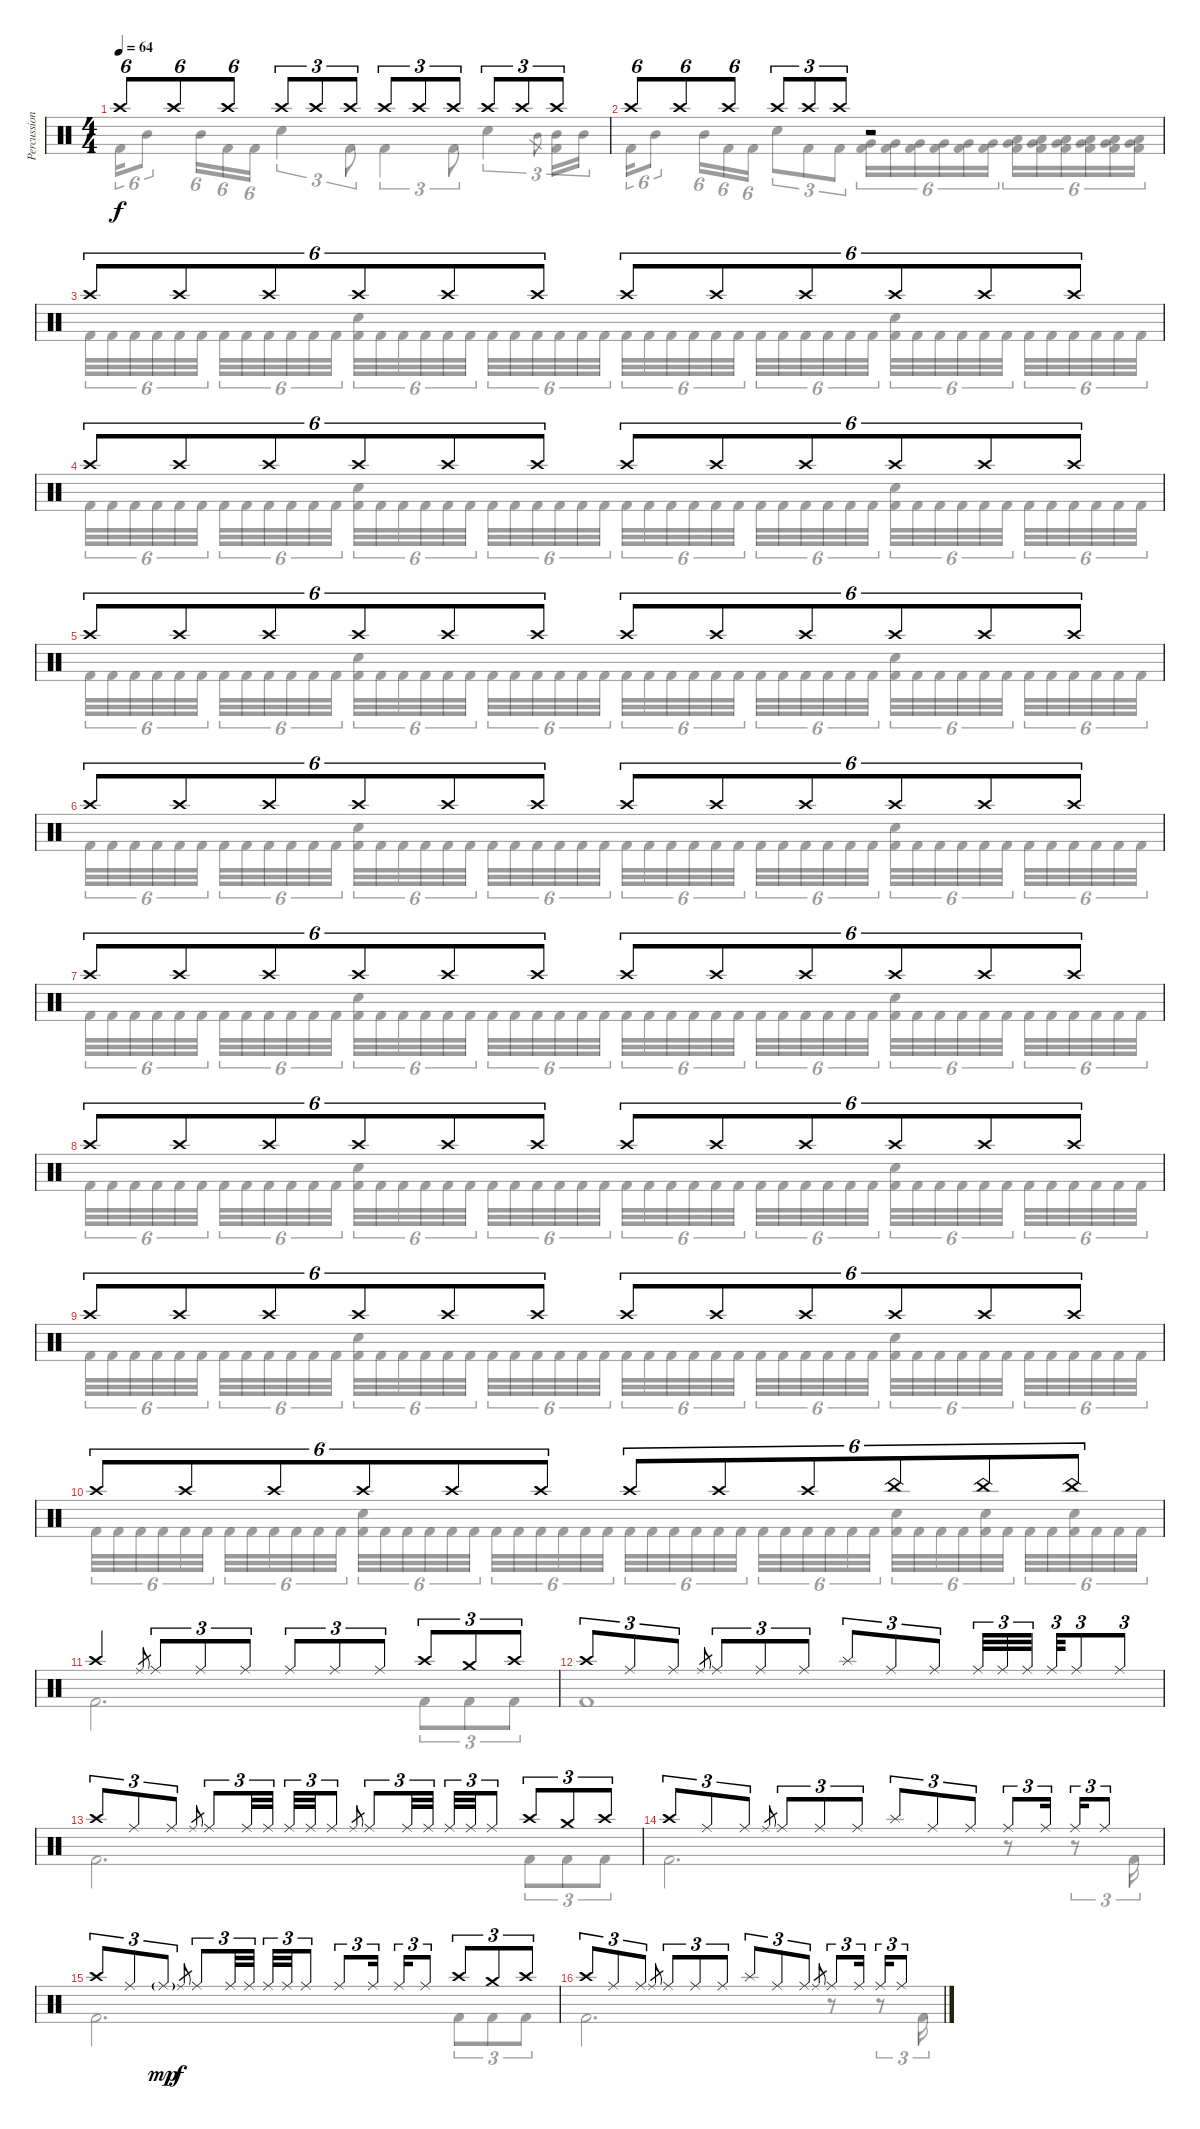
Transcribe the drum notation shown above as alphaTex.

\track ("Percussion" "Percussion") {instrument percussion}
\staff {score}
\articulation defaults
\voice
\ts (4 4)
\tempo 64
\clef neutral
\ks c "Crash high (hit)".8{tu (6 4) dy f} "Crash high (hit)".8{tu (6 4)} "Crash high (hit)".8{tu (6 4)} "Crash high (hit)".8{tu (3 2)} "Crash high (hit)".8{tu (3 2)} "Crash high (hit)".8{tu (3 2)} "Crash high (hit)".8{tu (3 2)} "Crash high (hit)".8{tu (3 2)} "Crash high (hit)".8{tu (3 2)} "Crash high (hit)".8{tu (3 2)} "Crash high (hit)".8{tu (3 2)} "Crash high (hit)".8{tu (3 2)}
|
"Crash high (hit)".8{tu (6 4)} "Crash high (hit)".8{tu (6 4)} "Crash high (hit)".8{tu (6 4)} "Crash high (hit)".8{tu (3 2)} "Crash high (hit)".8{tu (3 2)} "Crash high (hit)".8{tu (3 2)} r.2 |
"Crash high (hit)".8{tu (6 4)} "Crash high (hit)".8{tu (6 4)} "Crash high (hit)".8{tu (6 4)} "Crash high (hit)".8{tu (6 4)} "Crash high (hit)".8{tu (6 4)} "Crash high (hit)".8{tu (6 4)} "Crash high (hit)".8{tu (6 4)} "Crash high (hit)".8{tu (6 4)} "Crash high (hit)".8{tu (6 4)} "Crash high (hit)".8{tu (6 4)} "Crash high (hit)".8{tu (6 4)} "Crash high (hit)".8{tu (6 4)} |
"Crash high (hit)".8{tu (6 4)} "Crash high (hit)".8{tu (6 4)} "Crash high (hit)".8{tu (6 4)} "Crash high (hit)".8{tu (6 4)} "Crash high (hit)".8{tu (6 4)} "Crash high (hit)".8{tu (6 4)} "Crash high (hit)".8{tu (6 4)} "Crash high (hit)".8{tu (6 4)} "Crash high (hit)".8{tu (6 4)} "Crash high (hit)".8{tu (6 4)} "Crash high (hit)".8{tu (6 4)} "Crash high (hit)".8{tu (6 4)} |
"Crash high (hit)".8{tu (6 4)} "Crash high (hit)".8{tu (6 4)} "Crash high (hit)".8{tu (6 4)} "Crash high (hit)".8{tu (6 4)} "Crash high (hit)".8{tu (6 4)} "Crash high (hit)".8{tu (6 4)} "Crash high (hit)".8{tu (6 4)} "Crash high (hit)".8{tu (6 4)} "Crash high (hit)".8{tu (6 4)} "Crash high (hit)".8{tu (6 4)} "Crash high (hit)".8{tu (6 4)} "Crash high (hit)".8{tu (6 4)} |
"Crash high (hit)".8{tu (6 4)} "Crash high (hit)".8{tu (6 4)} "Crash high (hit)".8{tu (6 4)} "Crash high (hit)".8{tu (6 4)} "Crash high (hit)".8{tu (6 4)} "Crash high (hit)".8{tu (6 4)} "Crash high (hit)".8{tu (6 4)} "Crash high (hit)".8{tu (6 4)} "Crash high (hit)".8{tu (6 4)} "Crash high (hit)".8{tu (6 4)} "Crash high (hit)".8{tu (6 4)} "Crash high (hit)".8{tu (6 4)} |
"Crash high (hit)".8{tu (6 4)} "Crash high (hit)".8{tu (6 4)} "Crash high (hit)".8{tu (6 4)} "Crash high (hit)".8{tu (6 4)} "Crash high (hit)".8{tu (6 4)} "Crash high (hit)".8{tu (6 4)} "Crash high (hit)".8{tu (6 4)} "Crash high (hit)".8{tu (6 4)} "Crash high (hit)".8{tu (6 4)} "Crash high (hit)".8{tu (6 4)} "Crash high (hit)".8{tu (6 4)} "Crash high (hit)".8{tu (6 4)} |
"Crash high (hit)".8{tu (6 4)} "Crash high (hit)".8{tu (6 4)} "Crash high (hit)".8{tu (6 4)} "Crash high (hit)".8{tu (6 4)} "Crash high (hit)".8{tu (6 4)} "Crash high (hit)".8{tu (6 4)} "Crash high (hit)".8{tu (6 4)} "Crash high (hit)".8{tu (6 4)} "Crash high (hit)".8{tu (6 4)} "Crash high (hit)".8{tu (6 4)} "Crash high (hit)".8{tu (6 4)} "Crash high (hit)".8{tu (6 4)} |
"Crash high (hit)".8{tu (6 4)} "Crash high (hit)".8{tu (6 4)} "Crash high (hit)".8{tu (6 4)} "Crash high (hit)".8{tu (6 4)} "Crash high (hit)".8{tu (6 4)} "Crash high (hit)".8{tu (6 4)} "Crash high (hit)".8{tu (6 4)} "Crash high (hit)".8{tu (6 4)} "Crash high (hit)".8{tu (6 4)} "Crash high (hit)".8{tu (6 4)} "Crash high (hit)".8{tu (6 4)} "Crash high (hit)".8{tu (6 4)} |
"Crash high (hit)".8{tu (6 4)} "Crash high (hit)".8{tu (6 4)} "Crash high (hit)".8{tu (6 4)} "Crash high (hit)".8{tu (6 4)} "Crash high (hit)".8{tu (6 4)} "Crash high (hit)".8{tu (6 4)} "Crash high (hit)".8{tu (6 4)} "Crash high (hit)".8{tu (6 4)} "Crash high (hit)".8{tu (6 4)} "China (hit)".8{tu (6 4)} "China (hit)".8{tu (6 4)} "China (hit)".8{tu (6 4)} |
"Crash high (hit)".4 "Ride (middle)".8{gr} "Ride (middle)".8{tu (3 2)} "Ride (middle)".8{tu (3 2)} "Ride (middle)".8{tu (3 2)} "Ride (middle)".8{tu (3 2)} "Ride (middle)".8{tu (3 2)} "Ride (middle)".8{tu (3 2)} "Crash high (hit)".8{tu (3 2)} "Crash medium (hit)".8{tu (3 2)} "Crash high (hit)".8{tu (3 2)} |
"Crash high (hit)".8{tu (3 2)} "Ride (middle)".8{tu (3 2)} "Ride (middle)".8{tu (3 2)} "Ride (middle)".8{gr} "Ride (middle)".8{tu (3 2)} "Ride (middle)".8{tu (3 2)} "Ride (middle)".8{tu (3 2)} "Splash (hit)".8{tu (3 2)} "Ride (middle)".8{tu (3 2)} "Ride (middle)".8{tu (3 2)} "Ride (middle)".32{tu (3 2)} "Ride (middle)".32{tu (3 2)} "Ride (middle)".32{tu (3 2) beam splitsecondary} "Ride (middle)".32{tu (3 2)} "Ride (middle)".8{tu (3 2)} "Ride (middle)".8{tu (3 2)} |
"Crash high (hit)".8{tu (3 2)} "Ride (middle)".8{tu (3 2)} "Ride (middle)".8{tu (3 2)} "Ride (middle)".8{gr} "Ride (middle)".8{tu (3 2)} "Ride (middle)".32{tu (3 2)} "Ride (middle)".32{tu (3 2) beam splitsecondary} "Ride (middle)".32{tu (3 2)} "Ride (middle)".32{tu (3 2)} "Ride (middle)".8{tu (3 2)} "Ride (middle)".8{gr} "Ride (middle)".8{tu (3 2)} "Ride (middle)".32{tu (3 2)} "Ride (middle)".32{tu (3 2) beam splitsecondary} "Ride (middle)".32{tu (3 2)} "Ride (middle)".32{tu (3 2)} "Ride (middle)".8{tu (3 2)} "Crash high (hit)".8{tu (3 2)} "Crash medium (hit)".8{tu (3 2)} "Crash high (hit)".8{tu (3 2)} |
"Crash high (hit)".8{tu (3 2)} "Ride (middle)".8{tu (3 2)} "Ride (middle)".8{tu (3 2)} "Ride (middle)".8{gr} "Ride (middle)".8{tu (3 2)} "Ride (middle)".8{tu (3 2)} "Ride (middle)".8{tu (3 2)} "Splash (hit)".8{tu (3 2)} "Ride (middle)".8{tu (3 2)} "Ride (middle)".8{tu (3 2)} "Ride (middle)".8{tu (3 2)} "Ride (middle)".16{tu (3 2) beam splitsecondary} "Ride (middle)".16{tu (3 2)} "Ride (middle)".8{tu (3 2)} |
"Crash high (hit)".8{tu (3 2)} "Ride (middle)".8{tu (3 2)} "Ride (middle)"{g}.8{tu (3 2) dy mp} "Ride (middle)".8{gr dy f} "Ride (middle)".8{tu (3 2)} "Ride (middle)".32{tu (3 2)} "Ride (middle)".32{tu (3 2) beam splitsecondary} "Ride (middle)".32{tu (3 2)} "Ride (middle)".32{tu (3 2)} "Ride (middle)".8{tu (3 2)} "Ride (middle)".8{tu (3 2)} "Ride (middle)".16{tu (3 2) beam splitsecondary} "Ride (middle)".16{tu (3 2)} "Ride (middle)".8{tu (3 2)} "Crash high (hit)".8{tu (3 2)} "Crash medium (hit)".8{tu (3 2)} "Crash high (hit)".8{tu (3 2)} |
"Crash high (hit)".8{tu (3 2)} "Ride (middle)".8{tu (3 2)} "Ride (middle)".8{tu (3 2)} "Ride (middle)".8{gr} "Ride (middle)".8{tu (3 2)} "Ride (middle)".8{tu (3 2)} "Ride (middle)".8{tu (3 2)} "Splash (hit)".8{tu (3 2)} "Ride (middle)".8{tu (3 2)} "Ride (middle)".8{tu (3 2)} "Ride (middle)".8{gr} "Ride (middle)".8{tu (3 2)} "Ride (middle)".16{tu (3 2) beam splitsecondary} "Ride (middle)".16{tu (3 2)} "Ride (middle)".8{tu (3 2)}
\voice
\clef neutral
\ottava regular
\simile none
\ks c "Kick (hit) 2".16{tu (6 4) dy f} "Mid Tom (hit)".8{tu (6 4)} "Mid Tom (hit)".16{tu (6 4)} "Kick (hit) 2".16{tu (6 4)} "Kick (hit) 2".16{tu (6 4)} "Electric Snare (hit)".4{tu (3 2)} "Kick (hit) 2".8{tu (3 2)} "Kick (hit) 2".4{tu (3 2)} "Kick (hit) 2".8{tu (3 2)} "Electric Snare (hit)".4{tu (3 2)} "Mid Tom (hit)".8{gr}
("Mid Tom (hit)" "Kick (hit) 2").16{tu (3 2)} "Mid Tom (hit)".16{tu (3 2)} |
"Kick (hit) 2".16{tu (6 4)} "Mid Tom (hit)".8{tu (6 4)} "Mid Tom (hit)".16{tu (6 4)} "Kick (hit) 2".16{tu (6 4)} "Kick (hit) 2".16{tu (6 4)} "Electric Snare (hit)".8{tu (3 2)} "Kick (hit) 2".8{tu (3 2)} "Kick (hit) 2".8{tu (3 2)} ("Very Low Tom (hit)" "Kick (hit) 2").16{tu (6 4)} ("Very Low Tom (hit)" "Kick (hit) 2").16{tu (6 4)} ("Very Low Tom (hit)" "Kick (hit) 2").16{tu (6 4)} ("Very Low Tom (hit)" "Kick (hit) 2").16{tu (6 4)} ("Very Low Tom (hit)" "Kick (hit) 2").16{tu (6 4)} ("Very Low Tom (hit)" "Kick (hit) 2").16{tu (6 4)} ("Low Tom (hit)" "Very Low Tom (hit)" "Kick (hit) 2").16{tu (6 4)} ("Low Tom (hit)" "Very Low Tom (hit)" "Kick (hit) 2").16{tu (6 4)} ("Low Tom (hit)" "Very Low Tom (hit)" "Kick (hit) 2").16{tu (6 4)} ("Low Tom (hit)" "Very Low Tom (hit)" "Kick (hit) 2").16{tu (6 4)} ("Low Tom (hit)" "Very Low Tom (hit)" "Kick (hit) 2").16{tu (6 4)} ("Low Tom (hit)" "Very Low Tom (hit)" "Kick (hit) 2").16{tu (6 4)} |
"Kick (hit) 2".32{tu (6 4)} "Kick (hit) 2".32{tu (6 4)} "Kick (hit) 2".32{tu (6 4)} "Kick (hit) 2".32{tu (6 4)} "Kick (hit) 2".32{tu (6 4)} "Kick (hit) 2".32{tu (6 4)} "Kick (hit) 2".32{tu (6 4)} "Kick (hit) 2".32{tu (6 4)} "Kick (hit) 2".32{tu (6 4)} "Kick (hit) 2".32{tu (6 4)} "Kick (hit) 2".32{tu (6 4)} "Kick (hit) 2".32{tu (6 4)} ("Electric Snare (hit)" "Kick (hit) 2").32{tu (6 4)} "Kick (hit) 2".32{tu (6 4)} "Kick (hit) 2".32{tu (6 4)} "Kick (hit) 2".32{tu (6 4)} "Kick (hit) 2".32{tu (6 4)} "Kick (hit) 2".32{tu (6 4)} "Kick (hit) 2".32{tu (6 4)} "Kick (hit) 2".32{tu (6 4)} "Kick (hit) 2".32{tu (6 4)} "Kick (hit) 2".32{tu (6 4)} "Kick (hit) 2".32{tu (6 4)} "Kick (hit) 2".32{tu (6 4)} "Kick (hit) 2".32{tu (6 4)} "Kick (hit) 2".32{tu (6 4)} "Kick (hit) 2".32{tu (6 4)} "Kick (hit) 2".32{tu (6 4)} "Kick (hit) 2".32{tu (6 4)} "Kick (hit) 2".32{tu (6 4)} "Kick (hit) 2".32{tu (6 4)} "Kick (hit) 2".32{tu (6 4)} "Kick (hit) 2".32{tu (6 4)} "Kick (hit) 2".32{tu (6 4)} "Kick (hit) 2".32{tu (6 4)} "Kick (hit) 2".32{tu (6 4)} ("Electric Snare (hit)" "Kick (hit) 2").32{tu (6 4)} "Kick (hit) 2".32{tu (6 4)} "Kick (hit) 2".32{tu (6 4)} "Kick (hit) 2".32{tu (6 4)} "Kick (hit) 2".32{tu (6 4)} "Kick (hit) 2".32{tu (6 4)} "Kick (hit) 2".32{tu (6 4)} "Kick (hit) 2".32{tu (6 4)} "Kick (hit) 2".32{tu (6 4)} "Kick (hit) 2".32{tu (6 4)} "Kick (hit) 2".32{tu (6 4)} "Kick (hit) 2".32{tu (6 4)} |
"Kick (hit) 2".32{tu (6 4)} "Kick (hit) 2".32{tu (6 4)} "Kick (hit) 2".32{tu (6 4)} "Kick (hit) 2".32{tu (6 4)} "Kick (hit) 2".32{tu (6 4)} "Kick (hit) 2".32{tu (6 4)} "Kick (hit) 2".32{tu (6 4)} "Kick (hit) 2".32{tu (6 4)} "Kick (hit) 2".32{tu (6 4)} "Kick (hit) 2".32{tu (6 4)} "Kick (hit) 2".32{tu (6 4)} "Kick (hit) 2".32{tu (6 4)} ("Electric Snare (hit)" "Kick (hit) 2").32{tu (6 4)} "Kick (hit) 2".32{tu (6 4)} "Kick (hit) 2".32{tu (6 4)} "Kick (hit) 2".32{tu (6 4)} "Kick (hit) 2".32{tu (6 4)} "Kick (hit) 2".32{tu (6 4)} "Kick (hit) 2".32{tu (6 4)} "Kick (hit) 2".32{tu (6 4)} "Kick (hit) 2".32{tu (6 4)} "Kick (hit) 2".32{tu (6 4)} "Kick (hit) 2".32{tu (6 4)} "Kick (hit) 2".32{tu (6 4)} "Kick (hit) 2".32{tu (6 4)} "Kick (hit) 2".32{tu (6 4)} "Kick (hit) 2".32{tu (6 4)} "Kick (hit) 2".32{tu (6 4)} "Kick (hit) 2".32{tu (6 4)} "Kick (hit) 2".32{tu (6 4)} "Kick (hit) 2".32{tu (6 4)} "Kick (hit) 2".32{tu (6 4)} "Kick (hit) 2".32{tu (6 4)} "Kick (hit) 2".32{tu (6 4)} "Kick (hit) 2".32{tu (6 4)} "Kick (hit) 2".32{tu (6 4)} ("Electric Snare (hit)" "Kick (hit) 2").32{tu (6 4)} "Kick (hit) 2".32{tu (6 4)} "Kick (hit) 2".32{tu (6 4)} "Kick (hit) 2".32{tu (6 4)} "Kick (hit) 2".32{tu (6 4)} "Kick (hit) 2".32{tu (6 4)} "Kick (hit) 2".32{tu (6 4)} "Kick (hit) 2".32{tu (6 4)} "Kick (hit) 2".32{tu (6 4)} "Kick (hit) 2".32{tu (6 4)} "Kick (hit) 2".32{tu (6 4)} "Kick (hit) 2".32{tu (6 4)} |
"Kick (hit) 2".32{tu (6 4)} "Kick (hit) 2".32{tu (6 4)} "Kick (hit) 2".32{tu (6 4)} "Kick (hit) 2".32{tu (6 4)} "Kick (hit) 2".32{tu (6 4)} "Kick (hit) 2".32{tu (6 4)} "Kick (hit) 2".32{tu (6 4)} "Kick (hit) 2".32{tu (6 4)} "Kick (hit) 2".32{tu (6 4)} "Kick (hit) 2".32{tu (6 4)} "Kick (hit) 2".32{tu (6 4)} "Kick (hit) 2".32{tu (6 4)} ("Electric Snare (hit)" "Kick (hit) 2").32{tu (6 4)} "Kick (hit) 2".32{tu (6 4)} "Kick (hit) 2".32{tu (6 4)} "Kick (hit) 2".32{tu (6 4)} "Kick (hit) 2".32{tu (6 4)} "Kick (hit) 2".32{tu (6 4)} "Kick (hit) 2".32{tu (6 4)} "Kick (hit) 2".32{tu (6 4)} "Kick (hit) 2".32{tu (6 4)} "Kick (hit) 2".32{tu (6 4)} "Kick (hit) 2".32{tu (6 4)} "Kick (hit) 2".32{tu (6 4)} "Kick (hit) 2".32{tu (6 4)} "Kick (hit) 2".32{tu (6 4)} "Kick (hit) 2".32{tu (6 4)} "Kick (hit) 2".32{tu (6 4)} "Kick (hit) 2".32{tu (6 4)} "Kick (hit) 2".32{tu (6 4)} "Kick (hit) 2".32{tu (6 4)} "Kick (hit) 2".32{tu (6 4)} "Kick (hit) 2".32{tu (6 4)} "Kick (hit) 2".32{tu (6 4)} "Kick (hit) 2".32{tu (6 4)} "Kick (hit) 2".32{tu (6 4)} ("Electric Snare (hit)" "Kick (hit) 2").32{tu (6 4)} "Kick (hit) 2".32{tu (6 4)} "Kick (hit) 2".32{tu (6 4)} "Kick (hit) 2".32{tu (6 4)} "Kick (hit) 2".32{tu (6 4)} "Kick (hit) 2".32{tu (6 4)} "Kick (hit) 2".32{tu (6 4)} "Kick (hit) 2".32{tu (6 4)} "Kick (hit) 2".32{tu (6 4)} "Kick (hit) 2".32{tu (6 4)} "Kick (hit) 2".32{tu (6 4)} "Kick (hit) 2".32{tu (6 4)} |
"Kick (hit) 2".32{tu (6 4)} "Kick (hit) 2".32{tu (6 4)} "Kick (hit) 2".32{tu (6 4)} "Kick (hit) 2".32{tu (6 4)} "Kick (hit) 2".32{tu (6 4)} "Kick (hit) 2".32{tu (6 4)} "Kick (hit) 2".32{tu (6 4)} "Kick (hit) 2".32{tu (6 4)} "Kick (hit) 2".32{tu (6 4)} "Kick (hit) 2".32{tu (6 4)} "Kick (hit) 2".32{tu (6 4)} "Kick (hit) 2".32{tu (6 4)} ("Electric Snare (hit)" "Kick (hit) 2").32{tu (6 4)} "Kick (hit) 2".32{tu (6 4)} "Kick (hit) 2".32{tu (6 4)} "Kick (hit) 2".32{tu (6 4)} "Kick (hit) 2".32{tu (6 4)} "Kick (hit) 2".32{tu (6 4)} "Kick (hit) 2".32{tu (6 4)} "Kick (hit) 2".32{tu (6 4)} "Kick (hit) 2".32{tu (6 4)} "Kick (hit) 2".32{tu (6 4)} "Kick (hit) 2".32{tu (6 4)} "Kick (hit) 2".32{tu (6 4)} "Kick (hit) 2".32{tu (6 4)} "Kick (hit) 2".32{tu (6 4)} "Kick (hit) 2".32{tu (6 4)} "Kick (hit) 2".32{tu (6 4)} "Kick (hit) 2".32{tu (6 4)} "Kick (hit) 2".32{tu (6 4)} "Kick (hit) 2".32{tu (6 4)} "Kick (hit) 2".32{tu (6 4)} "Kick (hit) 2".32{tu (6 4)} "Kick (hit) 2".32{tu (6 4)} "Kick (hit) 2".32{tu (6 4)} "Kick (hit) 2".32{tu (6 4)} ("Electric Snare (hit)" "Kick (hit) 2").32{tu (6 4)} "Kick (hit) 2".32{tu (6 4)} "Kick (hit) 2".32{tu (6 4)} "Kick (hit) 2".32{tu (6 4)} "Kick (hit) 2".32{tu (6 4)} "Kick (hit) 2".32{tu (6 4)} "Kick (hit) 2".32{tu (6 4)} "Kick (hit) 2".32{tu (6 4)} "Kick (hit) 2".32{tu (6 4)} "Kick (hit) 2".32{tu (6 4)} "Kick (hit) 2".32{tu (6 4)} "Kick (hit) 2".32{tu (6 4)} |
"Kick (hit) 2".32{tu (6 4)} "Kick (hit) 2".32{tu (6 4)} "Kick (hit) 2".32{tu (6 4)} "Kick (hit) 2".32{tu (6 4)} "Kick (hit) 2".32{tu (6 4)} "Kick (hit) 2".32{tu (6 4)} "Kick (hit) 2".32{tu (6 4)} "Kick (hit) 2".32{tu (6 4)} "Kick (hit) 2".32{tu (6 4)} "Kick (hit) 2".32{tu (6 4)} "Kick (hit) 2".32{tu (6 4)} "Kick (hit) 2".32{tu (6 4)} ("Electric Snare (hit)" "Kick (hit) 2").32{tu (6 4)} "Kick (hit) 2".32{tu (6 4)} "Kick (hit) 2".32{tu (6 4)} "Kick (hit) 2".32{tu (6 4)} "Kick (hit) 2".32{tu (6 4)} "Kick (hit) 2".32{tu (6 4)} "Kick (hit) 2".32{tu (6 4)} "Kick (hit) 2".32{tu (6 4)} "Kick (hit) 2".32{tu (6 4)} "Kick (hit) 2".32{tu (6 4)} "Kick (hit) 2".32{tu (6 4)} "Kick (hit) 2".32{tu (6 4)} "Kick (hit) 2".32{tu (6 4)} "Kick (hit) 2".32{tu (6 4)} "Kick (hit) 2".32{tu (6 4)} "Kick (hit) 2".32{tu (6 4)} "Kick (hit) 2".32{tu (6 4)} "Kick (hit) 2".32{tu (6 4)} "Kick (hit) 2".32{tu (6 4)} "Kick (hit) 2".32{tu (6 4)} "Kick (hit) 2".32{tu (6 4)} "Kick (hit) 2".32{tu (6 4)} "Kick (hit) 2".32{tu (6 4)} "Kick (hit) 2".32{tu (6 4)} ("Electric Snare (hit)" "Kick (hit) 2").32{tu (6 4)} "Kick (hit) 2".32{tu (6 4)} "Kick (hit) 2".32{tu (6 4)} "Kick (hit) 2".32{tu (6 4)} "Kick (hit) 2".32{tu (6 4)} "Kick (hit) 2".32{tu (6 4)} "Kick (hit) 2".32{tu (6 4)} "Kick (hit) 2".32{tu (6 4)} "Kick (hit) 2".32{tu (6 4)} "Kick (hit) 2".32{tu (6 4)} "Kick (hit) 2".32{tu (6 4)} "Kick (hit) 2".32{tu (6 4)} |
"Kick (hit) 2".32{tu (6 4)} "Kick (hit) 2".32{tu (6 4)} "Kick (hit) 2".32{tu (6 4)} "Kick (hit) 2".32{tu (6 4)} "Kick (hit) 2".32{tu (6 4)} "Kick (hit) 2".32{tu (6 4)} "Kick (hit) 2".32{tu (6 4)} "Kick (hit) 2".32{tu (6 4)} "Kick (hit) 2".32{tu (6 4)} "Kick (hit) 2".32{tu (6 4)} "Kick (hit) 2".32{tu (6 4)} "Kick (hit) 2".32{tu (6 4)} ("Electric Snare (hit)" "Kick (hit) 2").32{tu (6 4)} "Kick (hit) 2".32{tu (6 4)} "Kick (hit) 2".32{tu (6 4)} "Kick (hit) 2".32{tu (6 4)} "Kick (hit) 2".32{tu (6 4)} "Kick (hit) 2".32{tu (6 4)} "Kick (hit) 2".32{tu (6 4)} "Kick (hit) 2".32{tu (6 4)} "Kick (hit) 2".32{tu (6 4)} "Kick (hit) 2".32{tu (6 4)} "Kick (hit) 2".32{tu (6 4)} "Kick (hit) 2".32{tu (6 4)} "Kick (hit) 2".32{tu (6 4)} "Kick (hit) 2".32{tu (6 4)} "Kick (hit) 2".32{tu (6 4)} "Kick (hit) 2".32{tu (6 4)} "Kick (hit) 2".32{tu (6 4)} "Kick (hit) 2".32{tu (6 4)} "Kick (hit) 2".32{tu (6 4)} "Kick (hit) 2".32{tu (6 4)} "Kick (hit) 2".32{tu (6 4)} "Kick (hit) 2".32{tu (6 4)} "Kick (hit) 2".32{tu (6 4)} "Kick (hit) 2".32{tu (6 4)} ("Electric Snare (hit)" "Kick (hit) 2").32{tu (6 4)} "Kick (hit) 2".32{tu (6 4)} "Kick (hit) 2".32{tu (6 4)} "Kick (hit) 2".32{tu (6 4)} "Kick (hit) 2".32{tu (6 4)} "Kick (hit) 2".32{tu (6 4)} "Kick (hit) 2".32{tu (6 4)} "Kick (hit) 2".32{tu (6 4)} "Kick (hit) 2".32{tu (6 4)} "Kick (hit) 2".32{tu (6 4)} "Kick (hit) 2".32{tu (6 4)} "Kick (hit) 2".32{tu (6 4)} |
"Kick (hit) 2".32{tu (6 4)} "Kick (hit) 2".32{tu (6 4)} "Kick (hit) 2".32{tu (6 4)} "Kick (hit) 2".32{tu (6 4)} "Kick (hit) 2".32{tu (6 4)} "Kick (hit) 2".32{tu (6 4)} "Kick (hit) 2".32{tu (6 4)} "Kick (hit) 2".32{tu (6 4)} "Kick (hit) 2".32{tu (6 4)} "Kick (hit) 2".32{tu (6 4)} "Kick (hit) 2".32{tu (6 4)} "Kick (hit) 2".32{tu (6 4)} ("Electric Snare (hit)" "Kick (hit) 2").32{tu (6 4)} "Kick (hit) 2".32{tu (6 4)} "Kick (hit) 2".32{tu (6 4)} "Kick (hit) 2".32{tu (6 4)} "Kick (hit) 2".32{tu (6 4)} "Kick (hit) 2".32{tu (6 4)} "Kick (hit) 2".32{tu (6 4)} "Kick (hit) 2".32{tu (6 4)} "Kick (hit) 2".32{tu (6 4)} "Kick (hit) 2".32{tu (6 4)} "Kick (hit) 2".32{tu (6 4)} "Kick (hit) 2".32{tu (6 4)} "Kick (hit) 2".32{tu (6 4)} "Kick (hit) 2".32{tu (6 4)} "Kick (hit) 2".32{tu (6 4)} "Kick (hit) 2".32{tu (6 4)} "Kick (hit) 2".32{tu (6 4)} "Kick (hit) 2".32{tu (6 4)} "Kick (hit) 2".32{tu (6 4)} "Kick (hit) 2".32{tu (6 4)} "Kick (hit) 2".32{tu (6 4)} "Kick (hit) 2".32{tu (6 4)} "Kick (hit) 2".32{tu (6 4)} "Kick (hit) 2".32{tu (6 4)} ("Electric Snare (hit)" "Kick (hit) 2").32{tu (6 4)} "Kick (hit) 2".32{tu (6 4)} "Kick (hit) 2".32{tu (6 4)} "Kick (hit) 2".32{tu (6 4)} "Kick (hit) 2".32{tu (6 4)} "Kick (hit) 2".32{tu (6 4)} "Kick (hit) 2".32{tu (6 4)} "Kick (hit) 2".32{tu (6 4)} "Kick (hit) 2".32{tu (6 4)} "Kick (hit) 2".32{tu (6 4)} "Kick (hit) 2".32{tu (6 4)} "Kick (hit) 2".32{tu (6 4)} |
"Kick (hit) 2".32{tu (6 4)} "Kick (hit) 2".32{tu (6 4)} "Kick (hit) 2".32{tu (6 4)} "Kick (hit) 2".32{tu (6 4)} "Kick (hit) 2".32{tu (6 4)} "Kick (hit) 2".32{tu (6 4)} "Kick (hit) 2".32{tu (6 4)} "Kick (hit) 2".32{tu (6 4)} "Kick (hit) 2".32{tu (6 4)} "Kick (hit) 2".32{tu (6 4)} "Kick (hit) 2".32{tu (6 4)} "Kick (hit) 2".32{tu (6 4)} ("Electric Snare (hit)" "Kick (hit) 2").32{tu (6 4)} "Kick (hit) 2".32{tu (6 4)} "Kick (hit) 2".32{tu (6 4)} "Kick (hit) 2".32{tu (6 4)} "Kick (hit) 2".32{tu (6 4)} "Kick (hit) 2".32{tu (6 4)} "Kick (hit) 2".32{tu (6 4)} "Kick (hit) 2".32{tu (6 4)} "Kick (hit) 2".32{tu (6 4)} "Kick (hit) 2".32{tu (6 4)} "Kick (hit) 2".32{tu (6 4)} "Kick (hit) 2".32{tu (6 4)} "Kick (hit) 2".32{tu (6 4)} "Kick (hit) 2".32{tu (6 4)} "Kick (hit) 2".32{tu (6 4)} "Kick (hit) 2".32{tu (6 4)} "Kick (hit) 2".32{tu (6 4)} "Kick (hit) 2".32{tu (6 4)} "Kick (hit) 2".32{tu (6 4)} "Kick (hit) 2".32{tu (6 4)} "Kick (hit) 2".32{tu (6 4)} "Kick (hit) 2".32{tu (6 4)} "Kick (hit) 2".32{tu (6 4)} "Kick (hit) 2".32{tu (6 4)} ("Electric Snare (hit)" "Kick (hit) 2").32{tu (6 4)} "Kick (hit) 2".32{tu (6 4)} "Kick (hit) 2".32{tu (6 4)} "Kick (hit) 2".32{tu (6 4)} ("Electric Snare (hit)" "Kick (hit) 2").32{tu (6 4)} "Kick (hit) 2".32{tu (6 4)} "Kick (hit) 2".32{tu (6 4)} "Kick (hit) 2".32{tu (6 4)} ("Electric Snare (hit)" "Kick (hit) 2").32{tu (6 4)} "Kick (hit) 2".32{tu (6 4)} "Kick (hit) 2".32{tu (6 4)} "Kick (hit) 2".32{tu (6 4)} |
"Kick (hit) 2".2{d} "Kick (hit) 2".8{tu (3 2)} "Kick (hit) 2".8{tu (3 2)} "Kick (hit) 2".8{tu (3 2)} |
"Kick (hit) 2".1 |
"Kick (hit) 2".2{d} "Kick (hit) 2".8{tu (3 2)} "Kick (hit) 2".8{tu (3 2)} "Kick (hit) 2".8{tu (3 2)} |
"Kick (hit) 2".2{d} r.8 r.8{tu (3 2)} "Kick (hit) 2".16{tu (3 2)} |
"Kick (hit) 2".2{d} "Kick (hit) 2".8{tu (3 2)} "Kick (hit) 2".8{tu (3 2)} "Kick (hit) 2".8{tu (3 2)} |
"Kick (hit) 2".2{d} r.8 r.8{tu (3 2)} "Kick (hit) 2".16{tu (3 2)}
